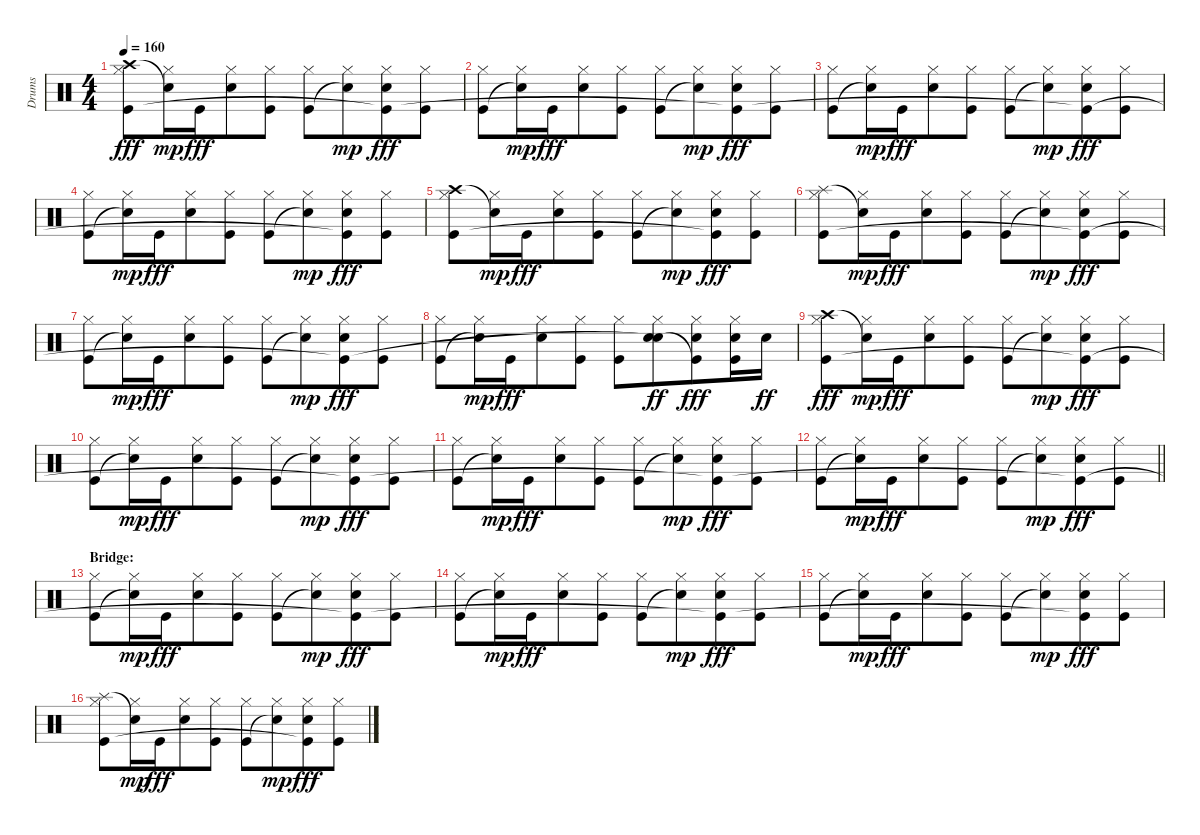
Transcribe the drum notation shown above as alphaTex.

\track ("Drums" "Drums") {instrument percussion}
\staff {score}
\articulation defaults
\ts (4 4)
\tempo 160
\clef neutral
\ks c
("Hi-Hat (closed)" "Crash high (hit)" "Kick (hit)").8{dy fff} ("Hi-Hat (closed)" "Snare (hit)"{t}).16{dy mp} "Kick (hit)".16{dy fff beam merge} ("Hi-Hat (closed)" "Snare (hit) 2").8 ("Hi-Hat (closed)" "Kick (hit)").8 ("Hi-Hat (closed)" "Kick (hit)").8 ("Hi-Hat (closed)" "Snare (hit)"{t}).8{dy mp beam merge} ("Hi-Hat (closed)" "Snare (hit) 2" "Kick (hit)"{t}).8{dy fff} ("Hi-Hat (closed)" "Kick (hit)").8 |
("Hi-Hat (closed)" "Kick (hit)").8 ("Hi-Hat (closed)" "Snare (hit)"{t}).16{dy mp} "Kick (hit)".16{dy fff beam merge} ("Hi-Hat (closed)" "Snare (hit) 2").8 ("Hi-Hat (closed)" "Kick (hit)").8 ("Hi-Hat (closed)" "Kick (hit)").8 ("Hi-Hat (closed)" "Snare (hit)"{t}).8{dy mp beam merge} ("Hi-Hat (closed)" "Snare (hit) 2" "Kick (hit)"{t}).8{dy fff} ("Hi-Hat (closed)" "Kick (hit)").8 |
("Hi-Hat (closed)" "Kick (hit)").8 ("Hi-Hat (closed)" "Snare (hit)"{t}).16{dy mp} "Kick (hit)".16{dy fff beam merge} ("Hi-Hat (closed)" "Snare (hit) 2").8 ("Hi-Hat (closed)" "Kick (hit)").8 ("Hi-Hat (closed)" "Kick (hit)").8 ("Hi-Hat (closed)" "Snare (hit)"{t}).8{dy mp beam merge} ("Hi-Hat (closed)" "Snare (hit) 2" "Kick (hit)"{t}).8{dy fff} ("Hi-Hat (closed)" "Kick (hit)").8 |
("Hi-Hat (closed)" "Kick (hit)").8 ("Hi-Hat (closed)" "Snare (hit)"{t}).16{dy mp} "Kick (hit)".16{dy fff beam merge} ("Hi-Hat (closed)" "Snare (hit) 2").8 ("Hi-Hat (closed)" "Kick (hit)").8 ("Hi-Hat (closed)" "Kick (hit)").8 ("Hi-Hat (closed)" "Snare (hit)"{t}).8{dy mp beam merge} ("Hi-Hat (closed)" "Snare (hit) 2" "Kick (hit)"{t}).8{dy fff} ("Hi-Hat (closed)" "Kick (hit)").8 |
("Hi-Hat (closed)" "Crash high (hit)" "Kick (hit)").8 ("Hi-Hat (closed)" "Snare (hit)"{t}).16{dy mp} "Kick (hit)".16{dy fff beam merge} ("Hi-Hat (closed)" "Snare (hit) 2").8 ("Hi-Hat (closed)" "Kick (hit)").8 ("Hi-Hat (closed)" "Kick (hit)").8 ("Hi-Hat (closed)" "Snare (hit)"{t}).8{dy mp beam merge} ("Hi-Hat (closed)" "Snare (hit) 2" "Kick (hit)"{t}).8{dy fff} ("Hi-Hat (closed)" "Kick (hit)").8 |
("Hi-Hat (closed)" "Splash (hit)" "Kick (hit)").8 ("Hi-Hat (closed)" "Snare (hit)"{t}).16{dy mp} "Kick (hit)".16{dy fff beam merge} ("Hi-Hat (closed)" "Snare (hit) 2").8 ("Hi-Hat (closed)" "Kick (hit)").8 ("Hi-Hat (closed)" "Kick (hit)").8 ("Hi-Hat (closed)" "Snare (hit)"{t}).8{dy mp beam merge} ("Hi-Hat (closed)" "Snare (hit) 2" "Kick (hit)"{t}).8{dy fff} ("Hi-Hat (closed)" "Kick (hit)").8 |
("Hi-Hat (closed)" "Kick (hit)").8 ("Hi-Hat (closed)" "Snare (hit)"{t}).16{dy mp} "Kick (hit)".16{dy fff beam merge} ("Hi-Hat (closed)" "Snare (hit) 2").8 ("Hi-Hat (closed)" "Kick (hit)").8 ("Hi-Hat (closed)" "Kick (hit)").8 ("Hi-Hat (closed)" "Snare (hit)"{t}).8{dy mp beam merge} ("Hi-Hat (closed)" "Snare (hit) 2" "Kick (hit)"{t}).8{dy fff} ("Hi-Hat (closed)" "Kick (hit)").8 |
("Hi-Hat (closed)" "Kick (hit)").8 ("Hi-Hat (closed)" "Snare (hit)"{t}).16{dy mp} "Kick (hit)".16{dy fff beam merge} ("Hi-Hat (closed)" "Snare (hit) 2").8 ("Hi-Hat (closed)" "Kick (hit)").8 ("Hi-Hat (closed)" "Kick (hit)").8 ("Hi-Hat (closed)" "Snare (hit) 2" "Snare (hit)"{t}).8{dy ff beam merge} ("Hi-Hat (closed)" "Snare (hit) 2" "Kick (hit)"{t}).8{dy fff} ("Hi-Hat (closed)" "Snare (hit) 2" "Kick (hit)").16 "Snare (hit) 2".16{dy ff} |
("Hi-Hat (closed)" "Crash high (hit)" "Kick (hit)").8{dy fff} ("Hi-Hat (closed)" "Snare (hit)"{t}).16{dy mp} "Kick (hit)".16{dy fff beam merge} ("Hi-Hat (closed)" "Snare (hit) 2").8 ("Hi-Hat (closed)" "Kick (hit)").8 ("Hi-Hat (closed)" "Kick (hit)").8 ("Hi-Hat (closed)" "Snare (hit)"{t}).8{dy mp beam merge} ("Hi-Hat (closed)" "Snare (hit) 2" "Kick (hit)"{t}).8{dy fff} ("Hi-Hat (closed)" "Kick (hit)").8 |
("Hi-Hat (closed)" "Kick (hit)").8 ("Hi-Hat (closed)" "Snare (hit)"{t}).16{dy mp} "Kick (hit)".16{dy fff beam merge} ("Hi-Hat (closed)" "Snare (hit) 2").8 ("Hi-Hat (closed)" "Kick (hit)").8 ("Hi-Hat (closed)" "Kick (hit)").8 ("Hi-Hat (closed)" "Snare (hit)"{t}).8{dy mp beam merge} ("Hi-Hat (closed)" "Snare (hit) 2" "Kick (hit)"{t}).8{dy fff} ("Hi-Hat (closed)" "Kick (hit)").8 |
("Hi-Hat (closed)" "Kick (hit)").8 ("Hi-Hat (closed)" "Snare (hit)"{t}).16{dy mp} "Kick (hit)".16{dy fff beam merge} ("Hi-Hat (closed)" "Snare (hit) 2").8 ("Hi-Hat (closed)" "Kick (hit)").8 ("Hi-Hat (closed)" "Kick (hit)").8 ("Hi-Hat (closed)" "Snare (hit)"{t}).8{dy mp beam merge} ("Hi-Hat (closed)" "Snare (hit) 2" "Kick (hit)"{t}).8{dy fff} ("Hi-Hat (closed)" "Kick (hit)").8 |
\barLineRight lightlight
("Hi-Hat (closed)" "Kick (hit)").8 ("Hi-Hat (closed)" "Snare (hit)"{t}).16{dy mp} "Kick (hit)".16{dy fff beam merge} ("Hi-Hat (closed)" "Snare (hit) 2").8 ("Hi-Hat (closed)" "Kick (hit)").8 ("Hi-Hat (closed)" "Kick (hit)").8 ("Hi-Hat (closed)" "Snare (hit)"{t}).8{dy mp beam merge} ("Hi-Hat (closed)" "Snare (hit) 2" "Kick (hit)"{t}).8{dy fff} ("Hi-Hat (closed)" "Kick (hit)").8 |
\section ("" "Bridge:")
("Hi-Hat (closed)" "Kick (hit)").8 ("Hi-Hat (closed)" "Snare (hit)"{t}).16{dy mp} "Kick (hit)".16{dy fff beam merge} ("Hi-Hat (closed)" "Snare (hit) 2").8 ("Hi-Hat (closed)" "Kick (hit)").8 ("Hi-Hat (closed)" "Kick (hit)").8 ("Hi-Hat (closed)" "Snare (hit)"{t}).8{dy mp beam merge} ("Hi-Hat (closed)" "Snare (hit) 2" "Kick (hit)"{t}).8{dy fff} ("Hi-Hat (closed)" "Kick (hit)").8 |
("Hi-Hat (closed)" "Kick (hit)").8 ("Hi-Hat (closed)" "Snare (hit)"{t}).16{dy mp} "Kick (hit)".16{dy fff beam merge} ("Hi-Hat (closed)" "Snare (hit) 2").8 ("Hi-Hat (closed)" "Kick (hit)").8 ("Hi-Hat (closed)" "Kick (hit)").8 ("Hi-Hat (closed)" "Snare (hit)"{t}).8{dy mp beam merge} ("Hi-Hat (closed)" "Snare (hit) 2" "Kick (hit)"{t}).8{dy fff} ("Hi-Hat (closed)" "Kick (hit)").8 |
("Hi-Hat (closed)" "Kick (hit)").8 ("Hi-Hat (closed)" "Snare (hit)"{t}).16{dy mp} "Kick (hit)".16{dy fff beam merge} ("Hi-Hat (closed)" "Snare (hit) 2").8 ("Hi-Hat (closed)" "Kick (hit)").8 ("Hi-Hat (closed)" "Kick (hit)").8 ("Hi-Hat (closed)" "Snare (hit)"{t}).8{dy mp beam merge} ("Hi-Hat (closed)" "Snare (hit) 2" "Kick (hit)"{t}).8{dy fff} ("Hi-Hat (closed)" "Kick (hit)").8 |
("Hi-Hat (closed)" "Splash (hit)" "Kick (hit)").8 ("Hi-Hat (closed)" "Snare (hit)"{t}).16{dy mp} "Kick (hit)".16{dy fff beam merge} ("Hi-Hat (closed)" "Snare (hit) 2").8 ("Hi-Hat (closed)" "Kick (hit)").8 ("Hi-Hat (closed)" "Kick (hit)").8 ("Hi-Hat (closed)" "Snare (hit)"{t}).8{dy mp beam merge} ("Hi-Hat (closed)" "Snare (hit) 2" "Kick (hit)"{t}).8{dy fff} ("Hi-Hat (closed)" "Kick (hit)").8
